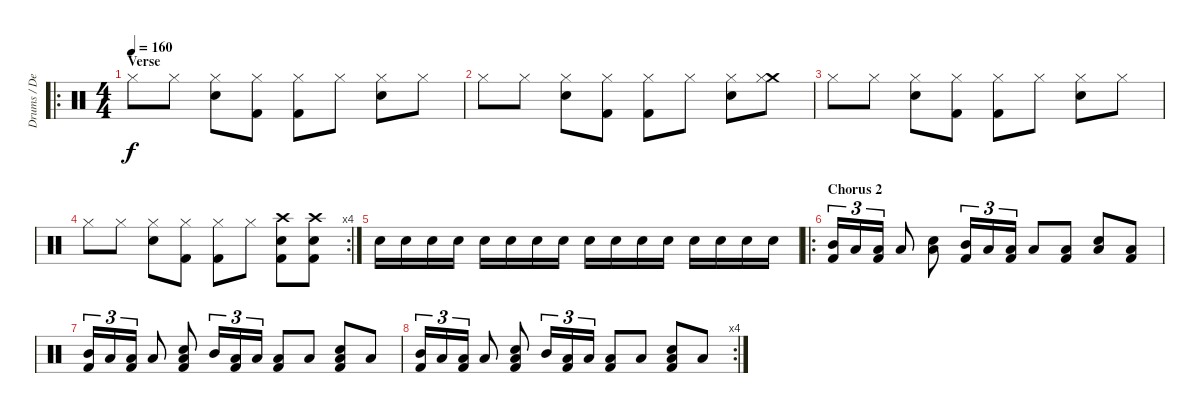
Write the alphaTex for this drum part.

\track ("Drums / Dennis" "Drums / De") {instrument percussion}
\staff {score}
\articulation defaults
\ro
\ts (4 4)
\section ("" "Verse")
\tempo 160
\clef neutral
\ks c "Hi-Hat (closed)".8{dy f} "Hi-Hat (closed)".8
("Snare (hit) 2" "Hi-Hat (closed)").8 ("Kick (hit) 2" "Hi-Hat (closed)").8 ("Kick (hit) 2" "Hi-Hat (closed)").8 "Hi-Hat (closed)".8 ("Snare (hit) 2" "Hi-Hat (closed)").8 "Hi-Hat (closed)".8 |
"Hi-Hat (closed)".8 "Hi-Hat (closed)".8 ("Snare (hit) 2" "Hi-Hat (closed)").8 ("Kick (hit) 2" "Hi-Hat (closed)").8 ("Kick (hit) 2" "Hi-Hat (closed)").8 "Hi-Hat (closed)".8 ("Snare (hit) 2" "Hi-Hat (closed)").8 ("Crash medium (hit)" "Hi-Hat (closed)").8 |
"Hi-Hat (closed)".8 "Hi-Hat (closed)".8 ("Snare (hit) 2" "Hi-Hat (closed)").8 ("Kick (hit) 2" "Hi-Hat (closed)").8 ("Kick (hit) 2" "Hi-Hat (closed)").8 "Hi-Hat (closed)".8 ("Snare (hit) 2" "Hi-Hat (closed)").8 "Hi-Hat (closed)".8 |
\rc 4 "Hi-Hat (closed)".8 "Hi-Hat (closed)".8
("Snare (hit) 2" "Hi-Hat (closed)").8 ("Kick (hit) 2" "Hi-Hat (closed)").8 ("Kick (hit) 2" "Hi-Hat (closed)").8 "Hi-Hat (closed)".8 ("Crash high (hit)" "Snare (hit) 2" "Kick (hit) 2").8 ("Crash high (hit)" "Snare (hit) 2" "Kick (hit) 2").8 |
"Snare (hit) 2".16 "Snare (hit) 2".16 "Snare (hit) 2".16 "Snare (hit) 2".16 "Snare (hit) 2".16 "Snare (hit) 2".16 "Snare (hit) 2".16 "Snare (hit) 2".16 "Snare (hit) 2".16 "Snare (hit) 2".16 "Snare (hit) 2".16 "Snare (hit) 2".16 "Snare (hit) 2".16 "Snare (hit) 2".16 "Snare (hit) 2".16 "Snare (hit) 2".16 |
\ro
\section ("" "Chorus 2")
("Mid Tom (hit)" "Kick (hit) 2").16{tu (3 2)} "Low Tom (hit)".16{tu (3 2)} ("Low Tom (hit)" "Kick (hit) 2").16{tu (3 2)} "Low Floor Tom (hit)".8 ("Low Floor Tom (hit)" "Electric Snare (hit)").8 ("Mid Tom (hit)" "Kick (hit) 2").16{tu (3 2)} "Low Tom (hit)".16{tu (3 2)} ("Low Tom (hit)" "Kick (hit) 2").16{tu (3 2)} "Low Floor Tom (hit)".8 ("Low Floor Tom (hit)" "Kick (hit) 2").8 ("Low Floor Tom (hit)" "Electric Snare (hit)").8 ("Low Floor Tom (hit)" "Kick (hit) 2").8 |
("Mid Tom (hit)" "Kick (hit) 2").16{tu (3 2)} "Low Tom (hit)".16{tu (3 2)} ("Low Tom (hit)" "Kick (hit) 2").16{tu (3 2)} "Low Floor Tom (hit)".8 ("Low Floor Tom (hit)" "Kick (hit) 2" "Electric Snare (hit)").8 "Mid Tom (hit)".16{tu (3 2)} ("Low Tom (hit)" "Kick (hit) 2").16{tu (3 2)} "Low Tom (hit)".16{tu (3 2)} ("Low Floor Tom (hit)" "Kick (hit) 2").8 "Low Floor Tom (hit)".8 ("Low Floor Tom (hit)" "Kick (hit) 2" "Electric Snare (hit)").8 "Low Floor Tom (hit)".8 |
\rc 4
("Mid Tom (hit)" "Kick (hit) 2").16{tu (3 2)} "Low Tom (hit)".16{tu (3 2)} ("Low Tom (hit)" "Kick (hit) 2").16{tu (3 2)} "Low Floor Tom (hit)".8 ("Low Floor Tom (hit)" "Kick (hit) 2" "Electric Snare (hit)").8 "Mid Tom (hit)".16{tu (3 2)} ("Low Tom (hit)" "Kick (hit) 2").16{tu (3 2)} "Low Tom (hit)".16{tu (3 2)} ("Low Floor Tom (hit)" "Kick (hit) 2").8 "Low Floor Tom (hit)".8 ("Low Floor Tom (hit)" "Kick (hit) 2" "Electric Snare (hit)").8 "Low Floor Tom (hit)".8
